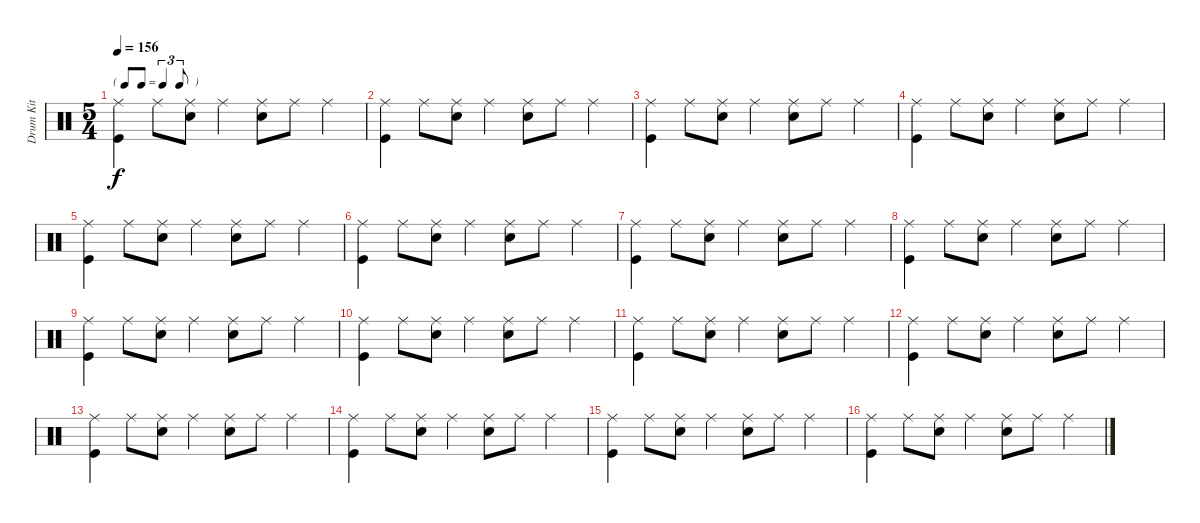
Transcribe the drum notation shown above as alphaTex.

\track ("Drum Kit" "Drum Kit") {instrument percussion}
\staff {score}
\articulation defaults
\ts (5 4)
\tf triplet8th
\tempo 156
\clef neutral
\ks c
("Ride (middle)" "Kick (hit)").4{dy f} "Ride (middle)".8 ("Ride (middle)" "Snare (hit) 2").8 "Ride (middle)".4 ("Ride (middle)" "Snare (hit) 2").8 "Ride (middle)".8 "Ride (middle)".4 |
("Ride (middle)" "Kick (hit)").4 "Ride (middle)".8 ("Ride (middle)" "Snare (hit) 2").8 "Ride (middle)".4 ("Ride (middle)" "Snare (hit) 2").8 "Ride (middle)".8 "Ride (middle)".4 |
("Ride (middle)" "Kick (hit)").4 "Ride (middle)".8 ("Ride (middle)" "Snare (hit) 2").8 "Ride (middle)".4 ("Ride (middle)" "Snare (hit) 2").8 "Ride (middle)".8 "Ride (middle)".4 |
("Ride (middle)" "Kick (hit)").4 "Ride (middle)".8 ("Ride (middle)" "Snare (hit) 2").8 "Ride (middle)".4 ("Ride (middle)" "Snare (hit) 2").8 "Ride (middle)".8 "Ride (middle)".4 |
("Ride (middle)" "Kick (hit)").4 "Ride (middle)".8 ("Ride (middle)" "Snare (hit) 2").8 "Ride (middle)".4 ("Ride (middle)" "Snare (hit) 2").8 "Ride (middle)".8 "Ride (middle)".4 |
("Ride (middle)" "Kick (hit)").4 "Ride (middle)".8 ("Ride (middle)" "Snare (hit) 2").8 "Ride (middle)".4 ("Ride (middle)" "Snare (hit) 2").8 "Ride (middle)".8 "Ride (middle)".4 |
("Ride (middle)" "Kick (hit)").4 "Ride (middle)".8 ("Ride (middle)" "Snare (hit) 2").8 "Ride (middle)".4 ("Ride (middle)" "Snare (hit) 2").8 "Ride (middle)".8 "Ride (middle)".4 |
("Ride (middle)" "Kick (hit)").4 "Ride (middle)".8 ("Ride (middle)" "Snare (hit) 2").8 "Ride (middle)".4 ("Ride (middle)" "Snare (hit) 2").8 "Ride (middle)".8 "Ride (middle)".4 |
("Ride (middle)" "Kick (hit)").4 "Ride (middle)".8 ("Ride (middle)" "Snare (hit) 2").8 "Ride (middle)".4 ("Ride (middle)" "Snare (hit) 2").8 "Ride (middle)".8 "Ride (middle)".4 |
("Ride (middle)" "Kick (hit)").4 "Ride (middle)".8 ("Ride (middle)" "Snare (hit) 2").8 "Ride (middle)".4 ("Ride (middle)" "Snare (hit) 2").8 "Ride (middle)".8 "Ride (middle)".4 |
("Ride (middle)" "Kick (hit)").4 "Ride (middle)".8 ("Ride (middle)" "Snare (hit) 2").8 "Ride (middle)".4 ("Ride (middle)" "Snare (hit) 2").8 "Ride (middle)".8 "Ride (middle)".4 |
("Ride (middle)" "Kick (hit)").4 "Ride (middle)".8 ("Ride (middle)" "Snare (hit) 2").8 "Ride (middle)".4 ("Ride (middle)" "Snare (hit) 2").8 "Ride (middle)".8 "Ride (middle)".4 |
("Ride (middle)" "Kick (hit)").4 "Ride (middle)".8 ("Ride (middle)" "Snare (hit) 2").8 "Ride (middle)".4 ("Ride (middle)" "Snare (hit) 2").8 "Ride (middle)".8 "Ride (middle)".4 |
("Ride (middle)" "Kick (hit)").4 "Ride (middle)".8 ("Ride (middle)" "Snare (hit) 2").8 "Ride (middle)".4 ("Ride (middle)" "Snare (hit) 2").8 "Ride (middle)".8 "Ride (middle)".4 |
("Ride (middle)" "Kick (hit)").4 "Ride (middle)".8 ("Ride (middle)" "Snare (hit) 2").8 "Ride (middle)".4 ("Ride (middle)" "Snare (hit) 2").8 "Ride (middle)".8 "Ride (middle)".4 |
("Ride (middle)" "Kick (hit)").4 "Ride (middle)".8 ("Ride (middle)" "Snare (hit) 2").8 "Ride (middle)".4 ("Ride (middle)" "Snare (hit) 2").8 "Ride (middle)".8 "Ride (middle)".4
